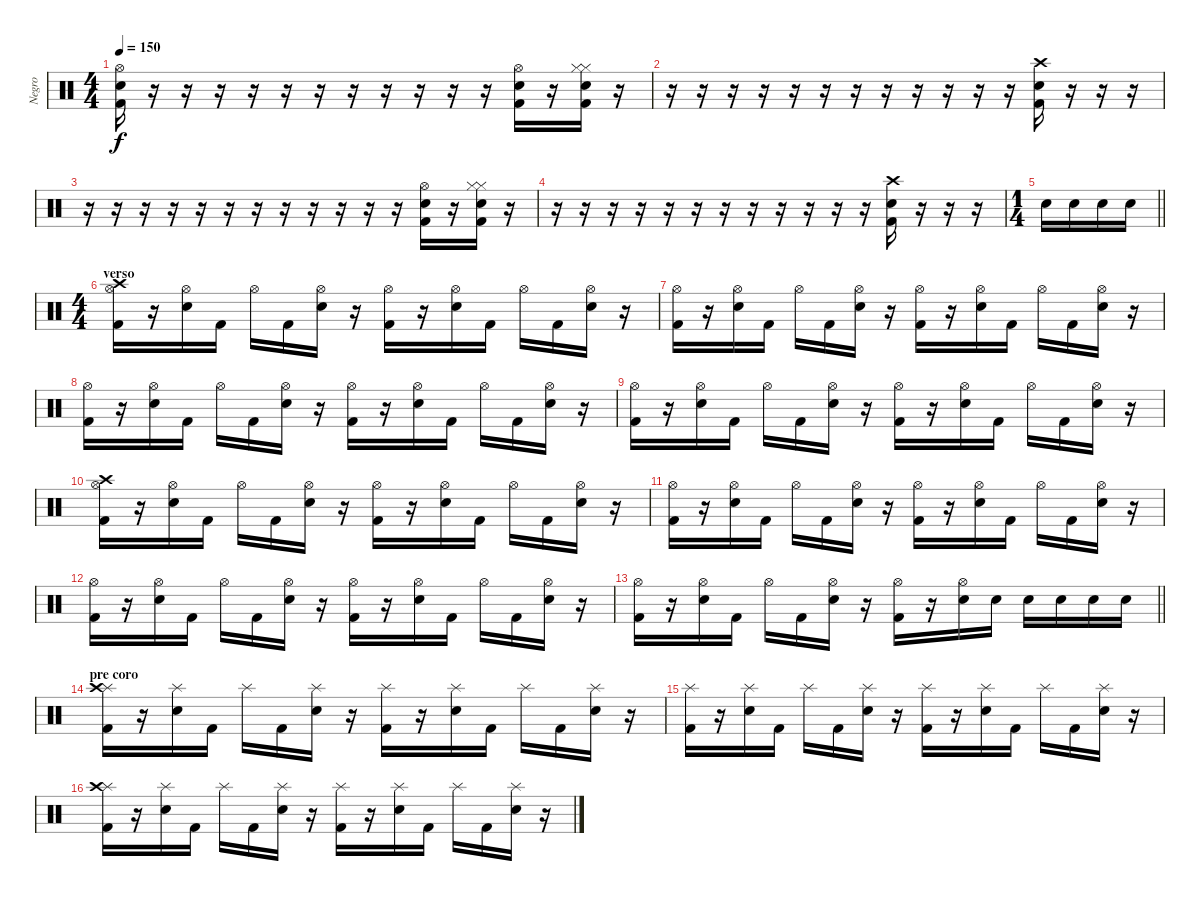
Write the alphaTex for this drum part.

\track ("Negro" "Negro") {instrument percussion}
\staff {score}
\articulation defaults
\ts (4 4)
\tempo 150
\clef neutral
\ks c
("Electric Snare (hit)" "Kick (hit) 2" "Hi-Hat (open)").16{dy f} r.16 r.16 r.16 r.16 r.16 r.16 r.16 r.16 r.16 r.16 r.16 ("Hi-Hat (open)" "Kick (hit) 2" "Electric Snare (hit)").16 r.16 ("Hi-Hat (closed)" "Hi-Hat (closed)" "Kick (hit) 2" "Electric Snare (hit)").16 r.16 |
r.16 r.16 r.16 r.16 r.16 r.16 r.16 r.16 r.16 r.16 r.16 r.16 ("Crash high (hit)" "Kick (hit) 2" "Electric Snare (hit)").16 r.16 r.16 r.16 |
r.16 r.16 r.16 r.16 r.16 r.16 r.16 r.16 r.16 r.16 r.16 r.16 ("Hi-Hat (open)" "Kick (hit) 2" "Electric Snare (hit)").16 r.16 ("Hi-Hat (closed)" "Hi-Hat (closed)" "Kick (hit) 2" "Electric Snare (hit)").16 r.16 |
r.16 r.16 r.16 r.16 r.16 r.16 r.16 r.16 r.16 r.16 r.16 r.16 ("Crash high (hit)" "Electric Snare (hit)" "Kick (hit) 2").16 r.16 r.16 r.16 |
\ts (1 4)
\barLineRight lightlight "Electric Snare (hit)".16 "Electric Snare (hit)".16 "Electric Snare (hit)".16 "Electric Snare (hit)".16
|
\ts (4 4)
\section ("" "verso")
("Kick (hit) 2" "Hi-Hat (open)" "Crash high (hit)").16 r.16 ("Electric Snare (hit)" "Hi-Hat (open)").16 "Kick (hit) 2".16 "Hi-Hat (open)".16 "Kick (hit) 2".16 ("Electric Snare (hit)" "Hi-Hat (open)").16 r.16 ("Kick (hit) 2" "Hi-Hat (open)").16 r.16 ("Electric Snare (hit)" "Hi-Hat (open)").16 "Kick (hit) 2".16 "Hi-Hat (open)".16 "Kick (hit) 2".16 ("Electric Snare (hit)" "Hi-Hat (open)").16 r.16 |
("Kick (hit) 2" "Hi-Hat (open)").16 r.16 ("Electric Snare (hit)" "Hi-Hat (open)").16 "Kick (hit) 2".16 "Hi-Hat (open)".16 "Kick (hit) 2".16 ("Electric Snare (hit)" "Hi-Hat (open)").16 r.16 ("Kick (hit) 2" "Hi-Hat (open)").16 r.16 ("Electric Snare (hit)" "Hi-Hat (open)").16 "Kick (hit) 2".16 "Hi-Hat (open)".16 "Kick (hit) 2".16 ("Electric Snare (hit)" "Hi-Hat (open)").16 r.16 |
("Kick (hit) 2" "Hi-Hat (open)").16 r.16 ("Electric Snare (hit)" "Hi-Hat (open)").16 "Kick (hit) 2".16 "Hi-Hat (open)".16 "Kick (hit) 2".16 ("Electric Snare (hit)" "Hi-Hat (open)").16 r.16 ("Kick (hit) 2" "Hi-Hat (open)").16 r.16 ("Electric Snare (hit)" "Hi-Hat (open)").16 "Kick (hit) 2".16 "Hi-Hat (open)".16 "Kick (hit) 2".16 ("Electric Snare (hit)" "Hi-Hat (open)").16 r.16 |
("Kick (hit) 2" "Hi-Hat (open)").16 r.16 ("Electric Snare (hit)" "Hi-Hat (open)").16 "Kick (hit) 2".16 "Hi-Hat (open)".16 "Kick (hit) 2".16 ("Electric Snare (hit)" "Hi-Hat (open)").16 r.16 ("Kick (hit) 2" "Hi-Hat (open)").16 r.16 ("Electric Snare (hit)" "Hi-Hat (open)").16 "Kick (hit) 2".16 "Hi-Hat (open)".16 "Kick (hit) 2".16 ("Electric Snare (hit)" "Hi-Hat (open)").16 r.16 |
("Kick (hit) 2" "Hi-Hat (open)" "Crash high (hit)").16 r.16 ("Electric Snare (hit)" "Hi-Hat (open)").16 "Kick (hit) 2".16 "Hi-Hat (open)".16 "Kick (hit) 2".16 ("Electric Snare (hit)" "Hi-Hat (open)").16 r.16 ("Kick (hit) 2" "Hi-Hat (open)").16 r.16 ("Electric Snare (hit)" "Hi-Hat (open)").16 "Kick (hit) 2".16 "Hi-Hat (open)".16 "Kick (hit) 2".16 ("Electric Snare (hit)" "Hi-Hat (open)").16 r.16 |
("Kick (hit) 2" "Hi-Hat (open)").16 r.16 ("Electric Snare (hit)" "Hi-Hat (open)").16 "Kick (hit) 2".16 "Hi-Hat (open)".16 "Kick (hit) 2".16 ("Electric Snare (hit)" "Hi-Hat (open)").16 r.16 ("Kick (hit) 2" "Hi-Hat (open)").16 r.16 ("Electric Snare (hit)" "Hi-Hat (open)").16 "Kick (hit) 2".16 "Hi-Hat (open)".16 "Kick (hit) 2".16 ("Electric Snare (hit)" "Hi-Hat (open)").16 r.16 |
("Kick (hit) 2" "Hi-Hat (open)").16 r.16 ("Electric Snare (hit)" "Hi-Hat (open)").16 "Kick (hit) 2".16 "Hi-Hat (open)".16 "Kick (hit) 2".16 ("Electric Snare (hit)" "Hi-Hat (open)").16 r.16 ("Kick (hit) 2" "Hi-Hat (open)").16 r.16 ("Electric Snare (hit)" "Hi-Hat (open)").16 "Kick (hit) 2".16 "Hi-Hat (open)".16 "Kick (hit) 2".16 ("Electric Snare (hit)" "Hi-Hat (open)").16 r.16 |
\barLineRight lightlight
("Kick (hit) 2" "Hi-Hat (open)").16 r.16 ("Electric Snare (hit)" "Hi-Hat (open)").16 "Kick (hit) 2".16 "Hi-Hat (open)".16 "Kick (hit) 2".16 ("Electric Snare (hit)" "Hi-Hat (open)").16 r.16 ("Kick (hit) 2" "Hi-Hat (open)").16 r.16 ("Electric Snare (hit)" "Hi-Hat (open)").16 "Electric Snare (hit)".16 "Electric Snare (hit)".16 "Electric Snare (hit)".16 "Electric Snare (hit)".16 "Electric Snare (hit)".16 |
\section ("" "pre coro")
("Kick (hit) 2" "Splash (hit)" "Crash high (hit)").16 r.16 ("Electric Snare (hit)" "Splash (hit)").16 "Kick (hit) 2".16 "Splash (hit)".16 "Kick (hit) 2".16 ("Electric Snare (hit)" "Splash (hit)").16 r.16 ("Kick (hit) 2" "Splash (hit)").16 r.16 ("Electric Snare (hit)" "Splash (hit)").16 "Kick (hit) 2".16 "Splash (hit)".16 "Kick (hit) 2".16 ("Electric Snare (hit)" "Splash (hit)").16 r.16 |
("Kick (hit) 2" "Splash (hit)").16 r.16 ("Electric Snare (hit)" "Splash (hit)").16 "Kick (hit) 2".16 "Splash (hit)".16 "Kick (hit) 2".16 ("Electric Snare (hit)" "Splash (hit)").16 r.16 ("Kick (hit) 2" "Splash (hit)").16 r.16 ("Electric Snare (hit)" "Splash (hit)").16 "Kick (hit) 2".16 "Splash (hit)".16 "Kick (hit) 2".16 ("Electric Snare (hit)" "Splash (hit)").16 r.16 |
("Kick (hit) 2" "Splash (hit)" "Crash high (hit)").16 r.16 ("Electric Snare (hit)" "Splash (hit)").16 "Kick (hit) 2".16 "Splash (hit)".16 "Kick (hit) 2".16 ("Electric Snare (hit)" "Splash (hit)").16 r.16 ("Kick (hit) 2" "Splash (hit)").16 r.16 ("Electric Snare (hit)" "Splash (hit)").16 "Kick (hit) 2".16 "Splash (hit)".16 "Kick (hit) 2".16 ("Electric Snare (hit)" "Splash (hit)").16 r.16
